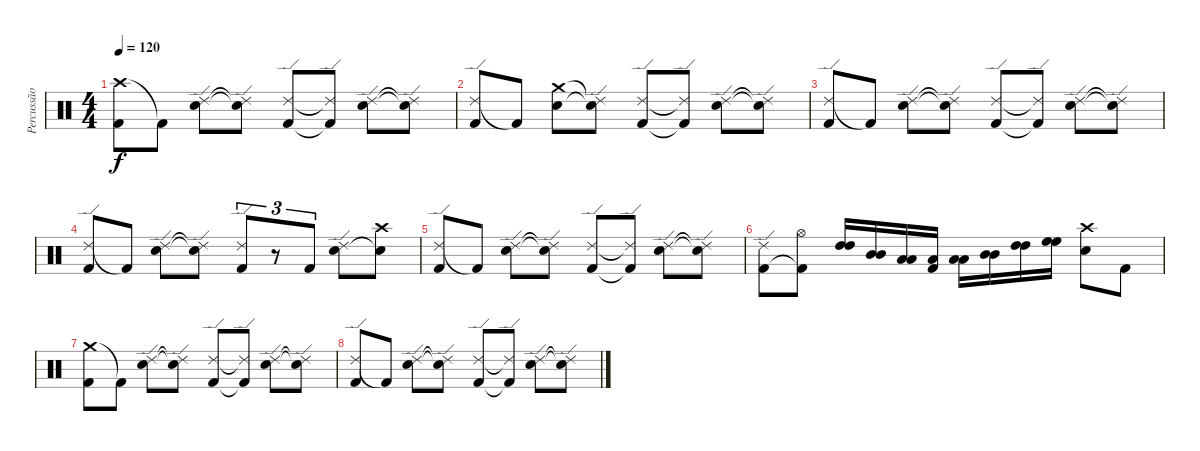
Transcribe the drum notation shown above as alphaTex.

\track ("Percussão" "Percussão") {instrument percussion}
\staff {score}
\articulation defaults
\ts (4 4)
\tempo 120
\clef neutral
\ks c
("Crash high (hit)" "Kick (hit) 2").8{dy f} "Kick (hit) 2"{t}.8 ("Ride (edge) 2" "Electric Snare (hit)").8 ("Ride (edge) 2"{t} "Electric Snare (hit)"{t}).8 ("Ride (edge) 2" "Kick (hit) 2").8 ("Ride (edge) 2"{t} "Kick (hit) 2"{t}).8 ("Ride (edge) 2" "Electric Snare (hit)").8 ("Ride (edge) 2"{t} "Electric Snare (hit)"{t}).8 |
("Ride (edge) 2" "Kick (hit) 2").8 "Kick (hit) 2"{t}.8 ("Crash medium (hit)" "Electric Snare (hit)").8 ("Ride (edge) 2"{t} "Electric Snare (hit)"{t}).8 ("Ride (edge) 2" "Kick (hit) 2").8 ("Ride (edge) 2"{t} "Kick (hit) 2"{t}).8 ("Ride (edge) 2" "Electric Snare (hit)").8 ("Ride (edge) 2"{t} "Electric Snare (hit)"{t}).8 |
("Ride (edge) 2" "Kick (hit) 2").8 "Kick (hit) 2"{t}.8 ("Ride (edge) 2" "Electric Snare (hit)").8 ("Ride (edge) 2"{t} "Electric Snare (hit)"{t}).8 ("Ride (edge) 2" "Kick (hit) 2").8 ("Ride (edge) 2"{t} "Kick (hit) 2"{t}).8 ("Ride (edge) 2" "Electric Snare (hit)").8 ("Ride (edge) 2"{t} "Electric Snare (hit)"{t}).8 |
("Ride (edge) 2" "Kick (hit) 2").8 "Kick (hit) 2"{t}.8 ("Ride (edge) 2" "Electric Snare (hit)").8 ("Ride (edge) 2"{t} "Electric Snare (hit)"{t}).8 ("Ride (edge) 2" "Kick (hit) 2").8{tu (3 2)} r.8{tu (3 2)} "Kick (hit) 2".8{tu (3 2)} ("Ride (edge) 2" "Electric Snare (hit)").8 ("Crash high (hit)" "Snare (hit)"{t}).8 |
("Ride (edge) 2" "Kick (hit) 2").8 "Kick (hit) 2"{t}.8 ("Ride (edge) 2" "Electric Snare (hit)").8 ("Ride (edge) 2"{t} "Electric Snare (hit)"{t}).8 ("Ride (edge) 2" "Kick (hit) 2").8 ("Ride (edge) 2"{t} "Kick (hit) 2"{t}).8 ("Ride (edge) 2" "Electric Snare (hit)").8 ("Ride (edge) 2"{t} "Electric Snare (hit)"{t}).8 |
("Ride (edge) 2" "Kick (hit) 2").8 ("Hi-Hat (open)" "Kick (hit) 2"{t}).8 ("High Tom (hit)" "High Tom (hit)").16 ("Mid Tom (hit)" "Mid Tom (hit)").16 ("Low Tom (hit)" "Low Tom (hit)").16 ("Low Floor Tom (hit)" "Kick (hit) 2").16 ("Low Tom (hit)" "Low Tom (hit)").16 ("Mid Tom (hit)" "Mid Tom (hit)").16 ("High Tom (hit)" "High Tom (hit)").16 ("High Floor Tom (hit)" "High Floor Tom (hit)").16 ("Crash high (hit)" "Electric Snare (hit)").8 "Kick (hit) 2".8 |
("Crash medium (hit)" "Kick (hit) 2").8 "Kick (hit) 2"{t}.8 ("Ride (edge) 2" "Electric Snare (hit)").8 ("Ride (edge) 2"{t} "Electric Snare (hit)"{t}).8 ("Ride (edge) 2" "Kick (hit) 2").8 ("Ride (edge) 2"{t} "Kick (hit) 2"{t}).8 ("Ride (edge) 2" "Electric Snare (hit)").8 ("Ride (edge) 2"{t} "Electric Snare (hit)"{t}).8 |
("Ride (edge) 2" "Kick (hit) 2").8 "Kick (hit) 2"{t}.8 ("Ride (edge) 2" "Electric Snare (hit)").8 ("Ride (edge) 2"{t} "Electric Snare (hit)"{t}).8 ("Ride (edge) 2" "Kick (hit) 2").8 ("Ride (edge) 2"{t} "Kick (hit) 2"{t}).8 ("Ride (edge) 2" "Electric Snare (hit)").8 ("Ride (edge) 2"{t} "Electric Snare (hit)"{t}).8
